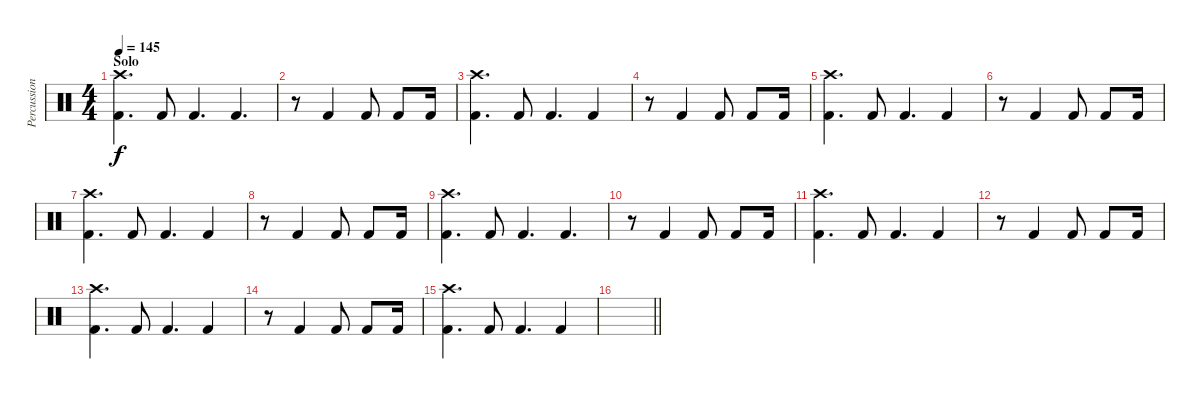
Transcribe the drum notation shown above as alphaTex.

\track ("Percussion" "Percussion") {instrument percussion}
\staff {score}
\articulation defaults
\ts (4 4)
\section ("" "Solo")
\tempo 145
\clef neutral
\ks c
("Crash high (hit)" "Kick (hit) 2").4{d dy f} "Kick (hit) 2".8 "Kick (hit) 2".4{d} "Kick (hit) 2".4{d} |
r.8 "Kick (hit) 2".4 "Kick (hit) 2".8 "Kick (hit) 2".8 "Kick (hit) 2".16 |
("Crash high (hit)" "Kick (hit) 2").4{d} "Kick (hit) 2".8 "Kick (hit) 2".4{d} "Kick (hit) 2".4 |
r.8 "Kick (hit) 2".4 "Kick (hit) 2".8 "Kick (hit) 2".8 "Kick (hit) 2".16 |
("Crash high (hit)" "Kick (hit) 2").4{d} "Kick (hit) 2".8 "Kick (hit) 2".4{d} "Kick (hit) 2".4 |
r.8 "Kick (hit) 2".4 "Kick (hit) 2".8 "Kick (hit) 2".8 "Kick (hit) 2".16 |
("Crash high (hit)" "Kick (hit) 2").4{d} "Kick (hit) 2".8 "Kick (hit) 2".4{d} "Kick (hit) 2".4 |
r.8 "Kick (hit) 2".4 "Kick (hit) 2".8 "Kick (hit) 2".8 "Kick (hit) 2".16 |
("Crash high (hit)" "Kick (hit) 2").4{d} "Kick (hit) 2".8 "Kick (hit) 2".4{d} "Kick (hit) 2".4{d} |
r.8 "Kick (hit) 2".4 "Kick (hit) 2".8 "Kick (hit) 2".8 "Kick (hit) 2".16 |
("Crash high (hit)" "Kick (hit) 2").4{d} "Kick (hit) 2".8 "Kick (hit) 2".4{d} "Kick (hit) 2".4 |
r.8 "Kick (hit) 2".4 "Kick (hit) 2".8 "Kick (hit) 2".8 "Kick (hit) 2".16 |
("Crash high (hit)" "Kick (hit) 2").4{d} "Kick (hit) 2".8 "Kick (hit) 2".4{d} "Kick (hit) 2".4 |
r.8 "Kick (hit) 2".4 "Kick (hit) 2".8 "Kick (hit) 2".8 "Kick (hit) 2".16 |
("Crash high (hit)" "Kick (hit) 2").4{d} "Kick (hit) 2".8 "Kick (hit) 2".4{d} "Kick (hit) 2".4 |
\barLineRight lightlight
